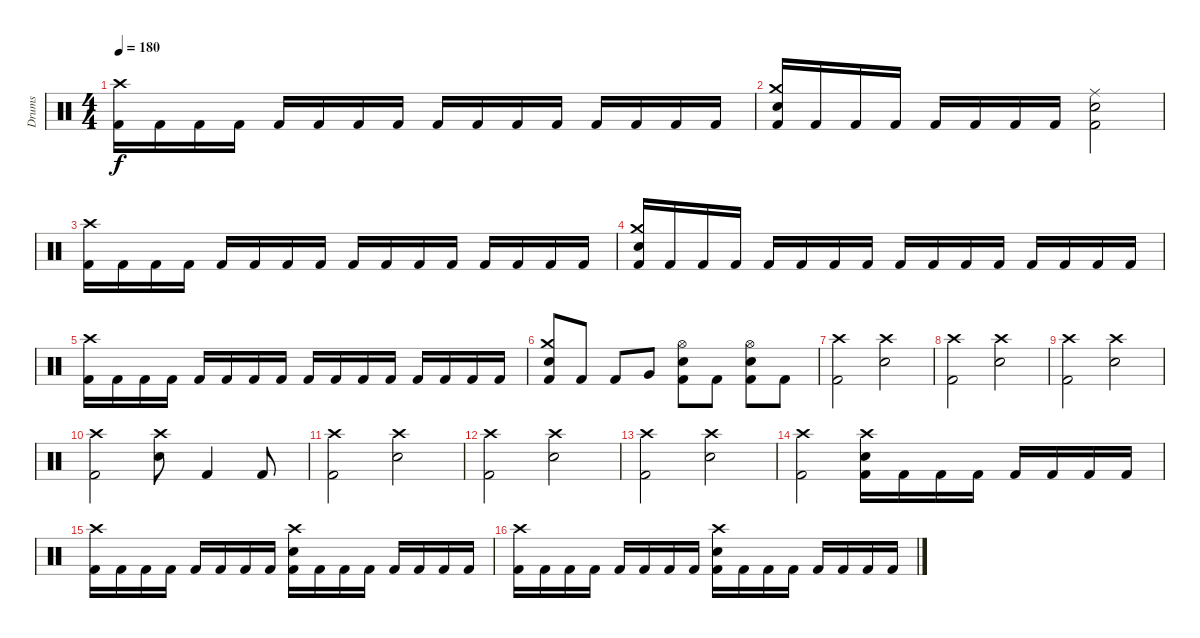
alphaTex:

\track ("Drums" "Drums") {instrument percussion}
\staff {score}
\articulation defaults
\ts (4 4)
\tempo 180
\clef neutral
\ks c
("Crash high (hit)" "Kick (hit) 2").16{dy f} "Kick (hit) 2".16 "Kick (hit) 2".16 "Kick (hit) 2".16 "Kick (hit) 2".16 "Kick (hit) 2".16 "Kick (hit) 2".16 "Kick (hit) 2".16 "Kick (hit) 2".16 "Kick (hit) 2".16 "Kick (hit) 2".16 "Kick (hit) 2".16 "Kick (hit) 2".16 "Kick (hit) 2".16 "Kick (hit) 2".16 "Kick (hit) 2".16 |
("Crash medium (hit)" "Electric Snare (hit)" "Kick (hit) 2").16 "Kick (hit) 2".16 "Kick (hit) 2".16 "Kick (hit) 2".16 "Kick (hit) 2".16 "Kick (hit) 2".16 "Kick (hit) 2".16 "Kick (hit) 2".16 ("Ride (middle)" "Electric Snare (hit)" "Kick (hit) 2").2 |
("Crash high (hit)" "Kick (hit) 2").16 "Kick (hit) 2".16 "Kick (hit) 2".16 "Kick (hit) 2".16 "Kick (hit) 2".16 "Kick (hit) 2".16 "Kick (hit) 2".16 "Kick (hit) 2".16 "Kick (hit) 2".16 "Kick (hit) 2".16 "Kick (hit) 2".16 "Kick (hit) 2".16 "Kick (hit) 2".16 "Kick (hit) 2".16 "Kick (hit) 2".16 "Kick (hit) 2".16 |
("Crash medium (hit)" "Electric Snare (hit)" "Kick (hit) 2").16 "Kick (hit) 2".16 "Kick (hit) 2".16 "Kick (hit) 2".16 "Kick (hit) 2".16 "Kick (hit) 2".16 "Kick (hit) 2".16 "Kick (hit) 2".16 "Kick (hit) 2".16 "Kick (hit) 2".16 "Kick (hit) 2".16 "Kick (hit) 2".16 "Kick (hit) 2".16 "Kick (hit) 2".16 "Kick (hit) 2".16 "Kick (hit) 2".16 |
("Crash high (hit)" "Kick (hit) 2").16 "Kick (hit) 2".16 "Kick (hit) 2".16 "Kick (hit) 2".16 "Kick (hit) 2".16 "Kick (hit) 2".16 "Kick (hit) 2".16 "Kick (hit) 2".16 "Kick (hit) 2".16 "Kick (hit) 2".16 "Kick (hit) 2".16 "Kick (hit) 2".16 "Kick (hit) 2".16 "Kick (hit) 2".16 "Kick (hit) 2".16 "Kick (hit) 2".16 |
("Crash medium (hit)" "Electric Snare (hit)" "Kick (hit) 2").8 "Kick (hit) 2".8 "Kick (hit) 2".8 "Very Low Tom (hit)".8 ("Hi-Hat (open)" "Electric Snare (hit)" "Kick (hit) 2").8 "Kick (hit) 2".8 ("Hi-Hat (open)" "Electric Snare (hit)" "Kick (hit) 2").8 "Kick (hit) 2".8 |
("Crash high (hit)" "Kick (hit) 2").2 ("Crash high (hit)" "Electric Snare (hit)").2 |
("Crash high (hit)" "Kick (hit) 2").2 ("Crash high (hit)" "Electric Snare (hit)").2 |
("Crash high (hit)" "Kick (hit) 2").2 ("Crash high (hit)" "Electric Snare (hit)").2 |
("Crash high (hit)" "Kick (hit) 2").2 ("Crash high (hit)" "Electric Snare (hit)").8 "Kick (hit) 2".4 "Kick (hit) 2".8 |
("Crash high (hit)" "Kick (hit) 2").2 ("Crash high (hit)" "Electric Snare (hit)").2 |
("Crash high (hit)" "Kick (hit) 2").2 ("Crash high (hit)" "Electric Snare (hit)").2 |
("Crash high (hit)" "Kick (hit) 2").2 ("Crash high (hit)" "Electric Snare (hit)").2 |
("Crash high (hit)" "Kick (hit) 2").2 ("Crash high (hit)" "Electric Snare (hit)" "Kick (hit) 2").16 "Kick (hit) 2".16 "Kick (hit) 2".16 "Kick (hit) 2".16 "Kick (hit) 2".16 "Kick (hit) 2".16 "Kick (hit) 2".16 "Kick (hit) 2".16 |
("Crash high (hit)" "Kick (hit) 2").16 "Kick (hit) 2".16 "Kick (hit) 2".16 "Kick (hit) 2".16 "Kick (hit) 2".16 "Kick (hit) 2".16 "Kick (hit) 2".16 "Kick (hit) 2".16 ("Crash high (hit)" "Electric Snare (hit)" "Kick (hit) 2").16 "Kick (hit) 2".16 "Kick (hit) 2".16 "Kick (hit) 2".16 "Kick (hit) 2".16 "Kick (hit) 2".16 "Kick (hit) 2".16 "Kick (hit) 2".16 |
("Crash high (hit)" "Kick (hit) 2").16 "Kick (hit) 2".16 "Kick (hit) 2".16 "Kick (hit) 2".16 "Kick (hit) 2".16 "Kick (hit) 2".16 "Kick (hit) 2".16 "Kick (hit) 2".16 ("Crash high (hit)" "Electric Snare (hit)" "Kick (hit) 2").16 "Kick (hit) 2".16 "Kick (hit) 2".16 "Kick (hit) 2".16 "Kick (hit) 2".16 "Kick (hit) 2".16 "Kick (hit) 2".16 "Kick (hit) 2".16
